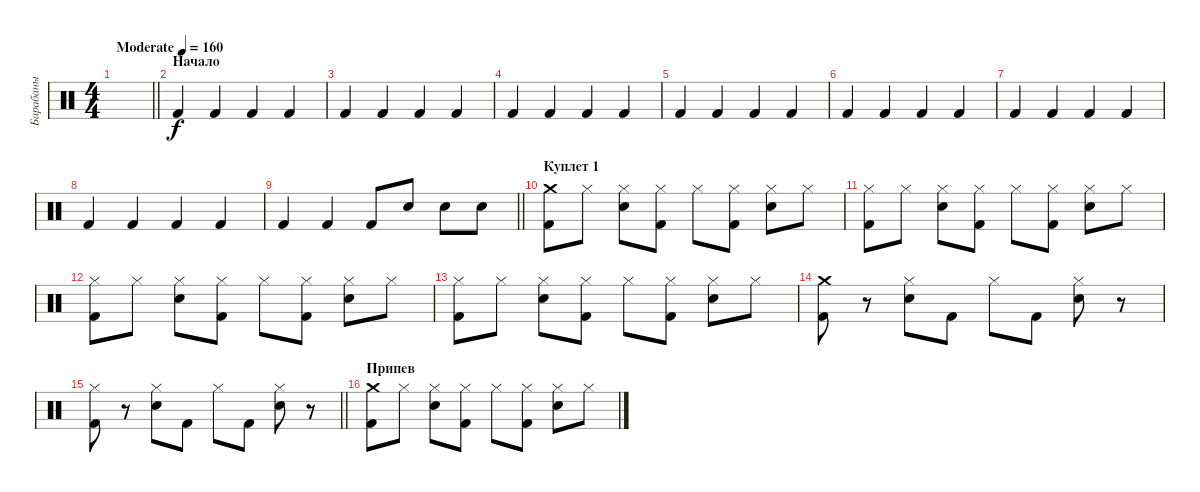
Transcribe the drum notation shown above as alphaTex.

\track ("Барабаны" "Барабаны") {instrument percussion}
\staff {score}
\articulation defaults
\ts (4 4)
\tempo (160 "Moderate")
\clef neutral
\barLineRight lightlight
\ks c
|
\section ("" "Начало")
"Kick (hit) 2".4 "Kick (hit) 2".4 "Kick (hit) 2".4 "Kick (hit) 2".4 |
"Kick (hit) 2".4 "Kick (hit) 2".4 "Kick (hit) 2".4 "Kick (hit) 2".4 |
"Kick (hit) 2".4 "Kick (hit) 2".4 "Kick (hit) 2".4 "Kick (hit) 2".4 |
"Kick (hit) 2".4 "Kick (hit) 2".4 "Kick (hit) 2".4 "Kick (hit) 2".4 |
"Kick (hit) 2".4 "Kick (hit) 2".4 "Kick (hit) 2".4 "Kick (hit) 2".4 |
"Kick (hit) 2".4 "Kick (hit) 2".4 "Kick (hit) 2".4 "Kick (hit) 2".4 |
"Kick (hit) 2".4 "Kick (hit) 2".4 "Kick (hit) 2".4 "Kick (hit) 2".4 |
\barLineRight lightlight "Kick (hit) 2".4 "Kick (hit) 2".4 "Kick (hit) 2".8 "Snare (hit) 2".8 "Snare (hit) 2".8 "Snare (hit) 2".8
|
\section ("" "Куплет 1")
("Crash medium (hit)" "Kick (hit) 2").8 "Hi-Hat (closed)".8 ("Hi-Hat (closed)" "Snare (hit) 2").8 ("Hi-Hat (closed)" "Kick (hit) 2").8 "Hi-Hat (closed)".8 ("Hi-Hat (closed)" "Kick (hit) 2").8 ("Hi-Hat (closed)" "Snare (hit) 2").8 "Hi-Hat (closed)".8 |
("Hi-Hat (closed)" "Kick (hit) 2").8 "Hi-Hat (closed)".8 ("Hi-Hat (closed)" "Snare (hit) 2").8 ("Hi-Hat (closed)" "Kick (hit) 2").8 "Hi-Hat (closed)".8 ("Hi-Hat (closed)" "Kick (hit) 2").8 ("Hi-Hat (closed)" "Snare (hit) 2").8 "Hi-Hat (closed)".8 |
("Hi-Hat (closed)" "Kick (hit) 2").8 "Hi-Hat (closed)".8 ("Hi-Hat (closed)" "Snare (hit) 2").8 ("Hi-Hat (closed)" "Kick (hit) 2").8 "Hi-Hat (closed)".8 ("Hi-Hat (closed)" "Kick (hit) 2").8 ("Hi-Hat (closed)" "Snare (hit) 2").8 "Hi-Hat (closed)".8 |
("Hi-Hat (closed)" "Kick (hit) 2").8 "Hi-Hat (closed)".8 ("Hi-Hat (closed)" "Snare (hit) 2").8 ("Hi-Hat (closed)" "Kick (hit) 2").8 "Hi-Hat (closed)".8 ("Hi-Hat (closed)" "Kick (hit) 2").8 ("Hi-Hat (closed)" "Snare (hit) 2").8 "Hi-Hat (closed)".8 |
("Crash medium (hit)" "Kick (hit) 2").8 r.8 ("Hi-Hat (closed)" "Snare (hit) 2").8 "Kick (hit) 2".8 "Hi-Hat (closed)".8 "Kick (hit) 2".8 ("Hi-Hat (closed)" "Snare (hit) 2").8 r.8 |
\barLineRight lightlight
("Hi-Hat (closed)" "Kick (hit) 2").8 r.8 ("Hi-Hat (closed)" "Snare (hit) 2").8 "Kick (hit) 2".8 "Hi-Hat (closed)".8 "Kick (hit) 2".8 ("Hi-Hat (closed)" "Snare (hit) 2").8 r.8 |
\section ("" "Припев")
("Crash medium (hit)" "Kick (hit) 2").8 "Hi-Hat (closed)".8 ("Hi-Hat (closed)" "Snare (hit) 2").8 ("Hi-Hat (closed)" "Kick (hit) 2").8 "Hi-Hat (closed)".8 ("Hi-Hat (closed)" "Kick (hit) 2").8 ("Hi-Hat (closed)" "Snare (hit) 2").8 "Hi-Hat (closed)".8
